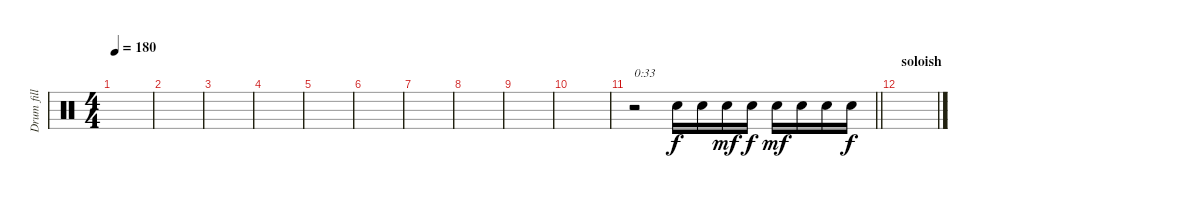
\track ("Drum fill" "Drum fill") {instrument percussion}
\staff {score}
\articulation defaults
\ts (4 4)
\tempo 180
\clef neutral
\ks c
|
|
|
|
|
|
|
|
|
|
\barLineRight lightlight
r.2{txt "0:33"} "Snare (hit) 2".16 "Snare (hit) 2".16{dy f} "Snare (hit) 2".16{dy mf} "Snare (hit) 2".16{dy f} "Snare (hit) 2".16{dy mf} "Snare (hit) 2".16 "Snare (hit) 2".16 "Snare (hit) 2".16{dy f} |
\section ("" "soloish")
